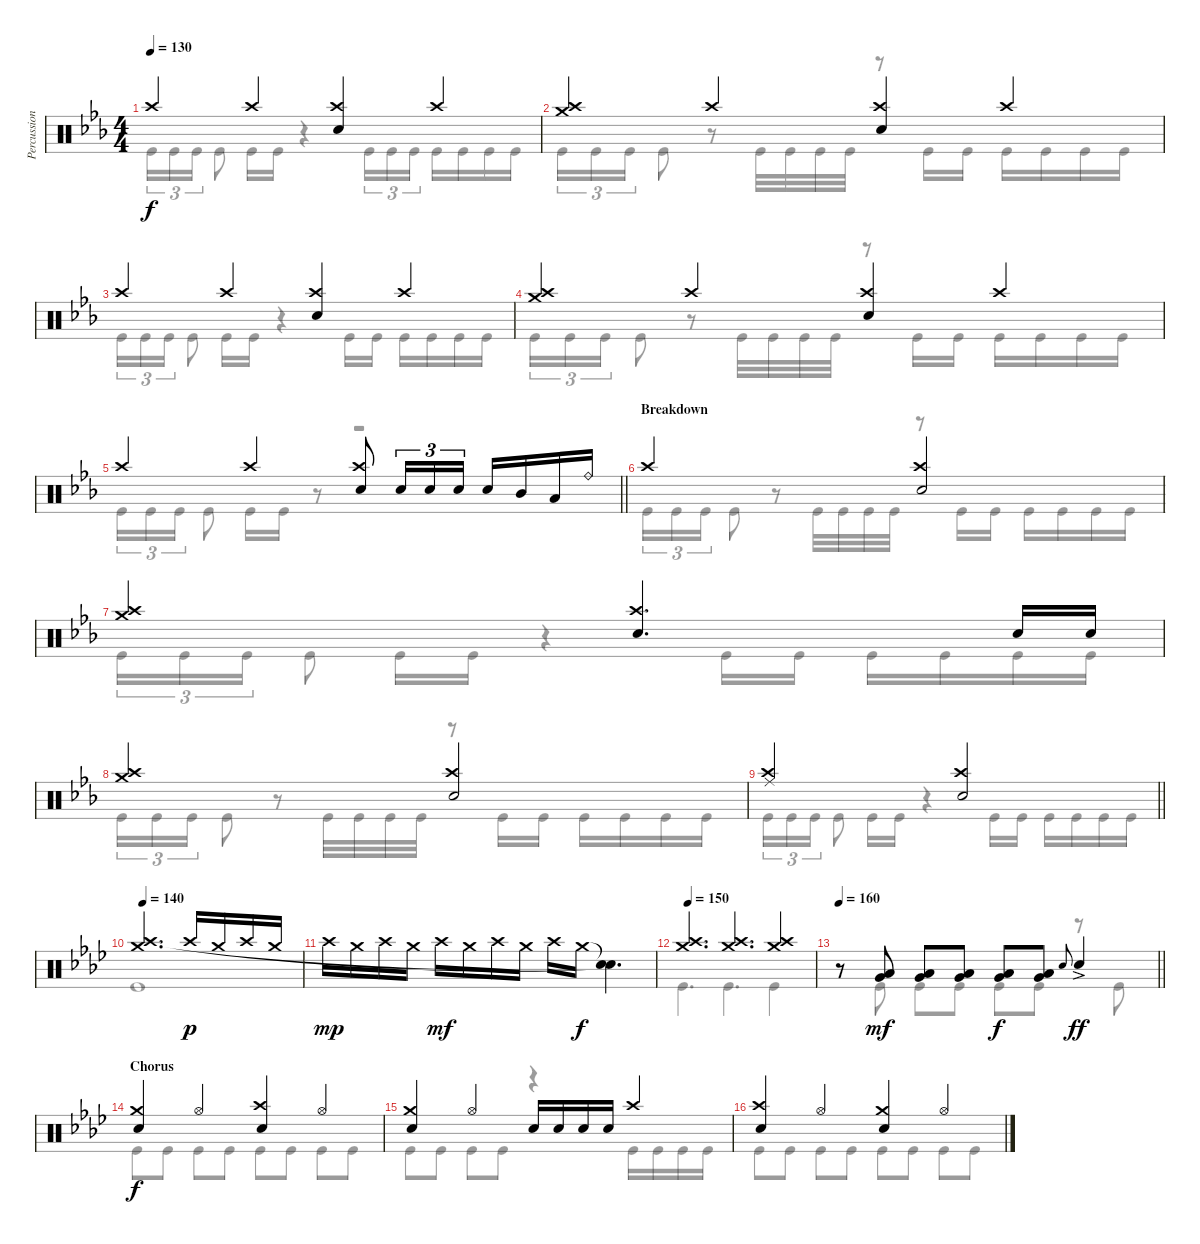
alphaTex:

\track ("Percussion" "Percussion") {instrument percussion}
\staff {score}
\articulation defaults
\voice
\ts (4 4)
\tempo 130
\clef neutral
\ks cminor "Crash high (hit)".4{dy f} "Crash high (hit)".4
("Crash high (hit)" "Electric Snare (hit)").4 "Crash high (hit)".4 |
("Crash medium (hit)" "Crash high (hit)").4 "Crash high (hit)".4 ("Crash high (hit)" "Electric Snare (hit)").4 "Crash high (hit)".4 |
"Crash high (hit)".4 "Crash high (hit)".4 ("Crash high (hit)" "Electric Snare (hit)").4 "Crash high (hit)".4 |
("Crash medium (hit)" "Crash high (hit)").4 "Crash high (hit)".4 ("Crash high (hit)" "Electric Snare (hit)").4 "Crash high (hit)".4 |
\barLineRight lightlight "Crash high (hit)".4 "Crash high (hit)".4
("Crash high (hit)" "Electric Snare (hit)").8 "Electric Snare (hit)".16{tu (3 2)} "Electric Snare (hit)".16{tu (3 2)} "Electric Snare (hit)".16{tu (3 2)} "Electric Snare (hit)".16 "Mid Tom (hit)".16 "Low Tom (hit)".16 "Ride (bell)".16 |
\section ("" "Breakdown")
"Crash high (hit)".2 ("Crash high (hit)" "Electric Snare (hit)").2 |
("Crash medium (hit)" "Crash high (hit)").2 ("Crash high (hit)" "Electric Snare (hit)").4{d} "Electric Snare (hit)".16 "Electric Snare (hit)".16 |
("Crash medium (hit)" "Crash high (hit)").2 ("Crash high (hit)" "Electric Snare (hit)").2 |
\barLineRight lightlight
("Ride (middle)" "Crash high (hit)").2 ("Crash high (hit)" "Electric Snare (hit)").2 |
\section ("" "")
\tempo 140
\ks fminor
("Crash medium (hit)" "Crash high (hit)").2{d} "Crash high (hit)".16{dy p} "Crash medium (hit)".16 "Crash high (hit)".16 "Crash medium (hit)".16 |
"Crash high (hit)".16{dy mp} "Crash medium (hit)".16 "Crash high (hit)".16 "Crash medium (hit)".16 "Crash high (hit)".16{dy mf} "Crash medium (hit)".16 "Crash high (hit)".16 "Crash medium (hit)".16 "Crash high (hit)".16 "Crash medium (hit)".16{dy f} ("Snare (hit)"{t} "Snare (hit)"{t}).4{d} |
\tempo 150
("Crash medium (hit)" "Crash high (hit)").4{d} ("Crash medium (hit)" "Crash high (hit)").4{d} ("Crash medium (hit)" "Crash high (hit)").4 |
\tempo 160
\barLineRight lightlight
r.8 ("Low Tom (hit)" "Very Low Tom (hit)").8{dy mf} ("Low Tom (hit)" "Very Low Tom (hit)").8 ("Low Tom (hit)" "Very Low Tom (hit)").8 ("Low Tom (hit)" "Very Low Tom (hit)").8{dy f} ("Low Tom (hit)" "Very Low Tom (hit)").8 "Electric Snare (hit)".8{gr onbeat} "Electric Snare (hit)"{ac}.4{dy ff} |
\section ("" "Chorus")
("Crash medium (hit)" "Electric Snare (hit)").4{dy f} "Hi-Hat (open)".4 ("Crash high (hit)" "Electric Snare (hit)").4 "Hi-Hat (open)".4 |
("Crash medium (hit)" "Electric Snare (hit)").4 "Hi-Hat (open)".4 "Electric Snare (hit)".16 "Electric Snare (hit)".16 "Electric Snare (hit)".16 "Electric Snare (hit)".16 "Crash high (hit)".4 |
("Crash high (hit)" "Electric Snare (hit)").4 "Hi-Hat (open)".4 ("Crash medium (hit)" "Electric Snare (hit)").4 "Hi-Hat (open)".4
\voice
\clef neutral
\ottava regular
\simile none
\ks cminor "Kick (hit)".16{tu (3 2) dy f} "Kick (hit)".16{tu (3 2)} "Kick (hit)".16{tu (3 2)} "Kick (hit)".8 "Kick (hit)".16 "Kick (hit)".16
r.4 "Kick (hit)".16{tu (3 2)} "Kick (hit)".16{tu (3 2)} "Kick (hit)".16{tu (3 2)} "Kick (hit)".16 "Kick (hit)".16 "Kick (hit)".16 "Kick (hit)".16 |
"Kick (hit)".16{tu (3 2)} "Kick (hit)".16{tu (3 2)} "Kick (hit)".16{tu (3 2)} "Kick (hit)".8 r.8 "Kick (hit)".32 "Kick (hit)".32 "Kick (hit)".32 "Kick (hit)".32 r.8 "Kick (hit)".16 "Kick (hit)".16 "Kick (hit)".16 "Kick (hit)".16 "Kick (hit)".16 "Kick (hit)".16 |
"Kick (hit)".16{tu (3 2)} "Kick (hit)".16{tu (3 2)} "Kick (hit)".16{tu (3 2)} "Kick (hit)".8 "Kick (hit)".16 "Kick (hit)".16 r.4 "Kick (hit)".16 "Kick (hit)".16 "Kick (hit)".16 "Kick (hit)".16 "Kick (hit)".16 "Kick (hit)".16 |
"Kick (hit)".16{tu (3 2)} "Kick (hit)".16{tu (3 2)} "Kick (hit)".16{tu (3 2)} "Kick (hit)".8 r.8 "Kick (hit)".32 "Kick (hit)".32 "Kick (hit)".32 "Kick (hit)".32 r.8 "Kick (hit)".16 "Kick (hit)".16 "Kick (hit)".16 "Kick (hit)".16 "Kick (hit)".16 "Kick (hit)".16 |
\barLineRight lightlight "Kick (hit)".16{tu (3 2)} "Kick (hit)".16{tu (3 2)} "Kick (hit)".16{tu (3 2)} "Kick (hit)".8 "Kick (hit)".16 "Kick (hit)".16
r.8 r.2 |
"Kick (hit)".16{tu (3 2)} "Kick (hit)".16{tu (3 2)} "Kick (hit)".16{tu (3 2)} "Kick (hit)".8 r.8 "Kick (hit)".32 "Kick (hit)".32 "Kick (hit)".32 "Kick (hit)".32 r.8 "Kick (hit)".16 "Kick (hit)".16 "Kick (hit)".16 "Kick (hit)".16 "Kick (hit)".16 "Kick (hit)".16 |
"Kick (hit)".16{tu (3 2)} "Kick (hit)".16{tu (3 2)} "Kick (hit)".16{tu (3 2)} "Kick (hit)".8 "Kick (hit)".16 "Kick (hit)".16 r.4 "Kick (hit)".16 "Kick (hit)".16 "Kick (hit)".16 "Kick (hit)".16 "Kick (hit)".16 "Kick (hit)".16 |
"Kick (hit)".16{tu (3 2)} "Kick (hit)".16{tu (3 2)} "Kick (hit)".16{tu (3 2)} "Kick (hit)".8 r.8 "Kick (hit)".32 "Kick (hit)".32 "Kick (hit)".32 "Kick (hit)".32 r.8 "Kick (hit)".16 "Kick (hit)".16 "Kick (hit)".16 "Kick (hit)".16 "Kick (hit)".16 "Kick (hit)".16 |
\barLineRight lightlight "Kick (hit)".16{tu (3 2)} "Kick (hit)".16{tu (3 2)} "Kick (hit)".16{tu (3 2)} "Kick (hit)".8 "Kick (hit)".16 "Kick (hit)".16
r.4 "Kick (hit)".16 "Kick (hit)".16 "Kick (hit)".16 "Kick (hit)".16 "Kick (hit)".16 "Kick (hit)".16 |
\ks fminor "Kick (hit)".1
|
|
"Kick (hit)".4{d} "Kick (hit)".4{d} "Kick (hit)".4 |
\barLineRight lightlight
r.8 "Kick (hit)".8 "Kick (hit)".8 "Kick (hit)".8 "Kick (hit)".8 "Kick (hit)".8 r.8 "Kick (hit)".8 |
"Kick (hit)".8 "Kick (hit)".8 "Kick (hit)".8 "Kick (hit)".8 "Kick (hit)".8 "Kick (hit)".8 "Kick (hit)".8 "Kick (hit)".8 |
"Kick (hit)".8 "Kick (hit)".8 "Kick (hit)".8 "Kick (hit)".8 r.4 "Kick (hit)".16 "Kick (hit)".16 "Kick (hit)".16 "Kick (hit)".16 |
"Kick (hit)".8 "Kick (hit)".8 "Kick (hit)".8 "Kick (hit)".8 "Kick (hit)".8 "Kick (hit)".8 "Kick (hit)".8 "Kick (hit)".8
